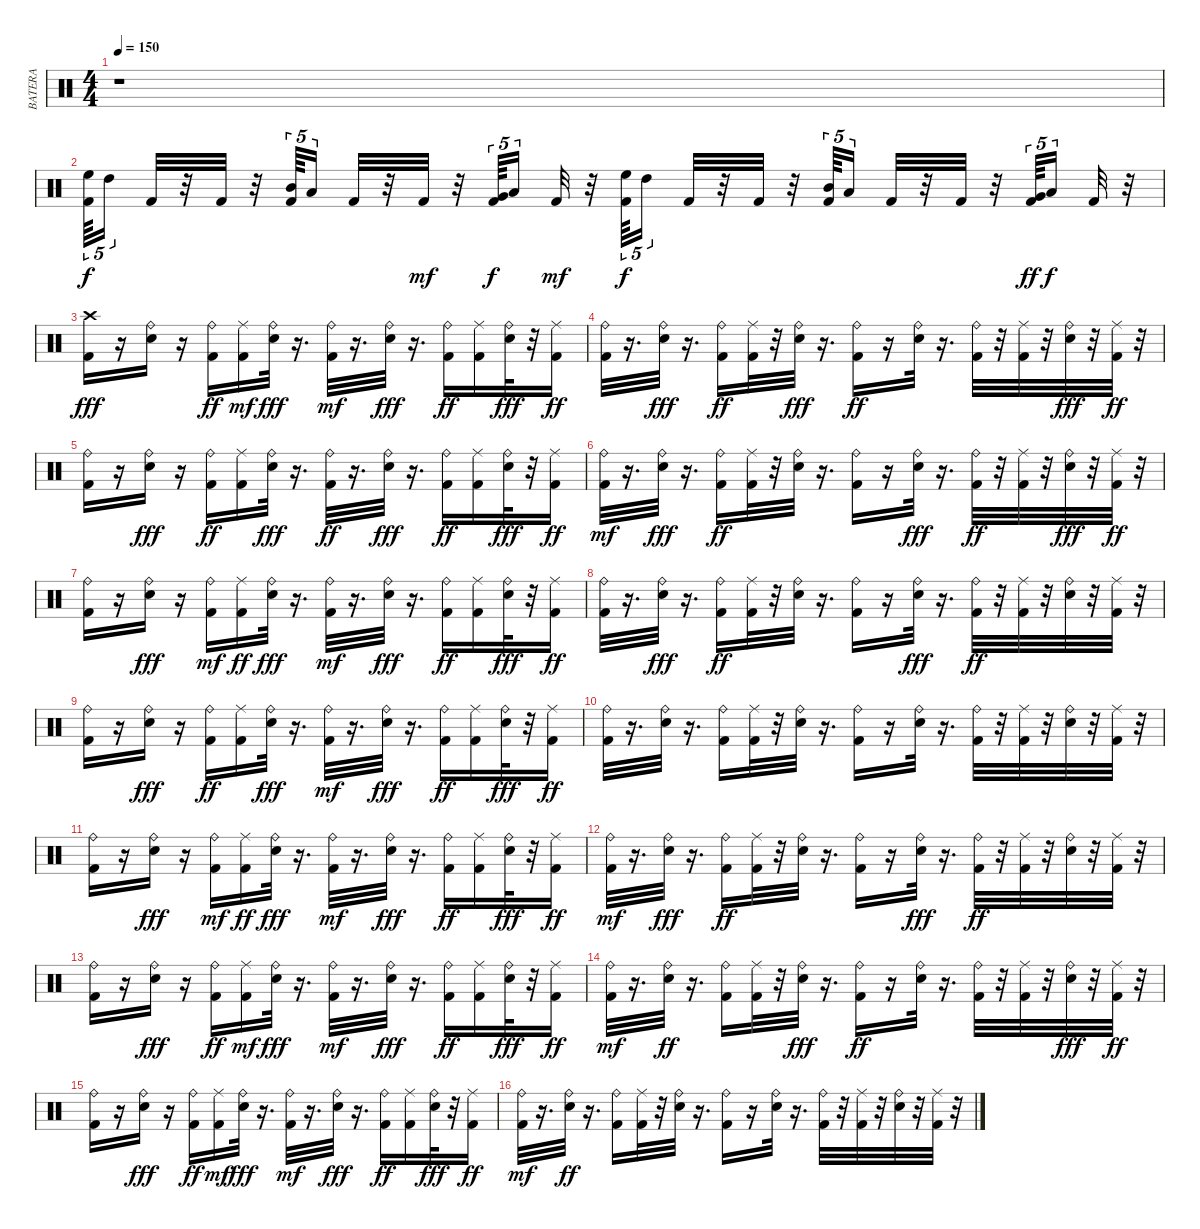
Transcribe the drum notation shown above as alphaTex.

\track ("BATERA" "BATERA") {instrument percussion}
\staff {score}
\articulation defaults
\ts (4 4)
\tempo 150
\clef neutral
\ks c
r.1{dy f} |
("Kick (hit) 2" "High Floor Tom (hit)").64{tu (5 4)} "High Tom (hit)".16{tu (5 4)} "Kick (hit) 2".32 r.32 "Kick (hit) 2".32 r.32 ("Kick (hit) 2" "Mid Tom (hit)").64{tu (5 4)} "Low Tom (hit)".16{tu (5 4)} "Kick (hit) 2".32 r.32 "Kick (hit) 2".32{dy mf} r.32 ("Kick (hit) 2" "Very Low Tom (hit)").64{tu (5 4) dy f} "Low Floor Tom (hit)".16{tu (5 4)} "Kick (hit) 2".32{dy mf} r.32 ("Kick (hit) 2" "High Floor Tom (hit)").64{tu (5 4) dy f} "High Tom (hit)".16{tu (5 4)} "Kick (hit) 2".32 r.32 "Kick (hit) 2".32 r.32 ("Mid Tom (hit)" "Kick (hit) 2").64{tu (5 4)} "Low Tom (hit)".16{tu (5 4)} "Kick (hit) 2".32 r.32 "Kick (hit) 2".32 r.32 ("Kick (hit) 2" "Very Low Tom (hit)").64{tu (5 4) dy ff} "Low Floor Tom (hit)".16{tu (5 4) dy f} "Kick (hit) 2".32 r.32 |
("Kick (hit) 2" "Crash high (hit)").16{dy fff} r.16 ("Electric Snare (hit)" "Ride (bell)").16 r.16 ("Ride (bell)" "Kick (hit) 2").16{dy ff} ("Kick (hit) 2" "Ride (middle)").16{dy mf} ("Ride (bell)" "Electric Snare (hit)").32{dy fff} r.16{d} ("Kick (hit) 2" "Ride (bell)").32{dy mf} r.16{d} ("Electric Snare (hit)" "Ride (bell)").32{dy fff} r.16{d} ("Kick (hit) 2" "Ride (bell)").16{dy ff} ("Kick (hit) 2" "Ride (middle)").16 ("Electric Snare (hit)" "Ride (bell)").32{dy fff} r.32 ("Ride (middle)" "Kick (hit) 2").16{dy ff} |
("Ride (bell)" "Kick (hit) 2").32 r.16{d} ("Ride (bell)" "Electric Snare (hit)").32{dy fff} r.16{d} ("Ride (bell)" "Kick (hit) 2").16{dy ff} ("Kick (hit) 2" "Ride (middle)").32 r.32 ("Ride (bell)" "Electric Snare (hit)").32{dy fff} r.16{d} ("Kick (hit) 2" "Ride (bell)").16{dy ff} r.16 ("Electric Snare (hit)" "Ride (bell)").32 r.16{d} ("Ride (bell)" "Kick (hit) 2").32 r.32 ("Kick (hit) 2" "Ride (middle)").32 r.32 ("Ride (bell)" "Electric Snare (hit)").32{dy fff} r.32 ("Ride (middle)" "Kick (hit) 2").32{dy ff} r.32 |
("Ride (bell)" "Kick (hit) 2").16 r.16 ("Electric Snare (hit)" "Ride (bell)").16{dy fff} r.16 ("Ride (bell)" "Kick (hit) 2").16{dy ff} ("Ride (middle)" "Kick (hit) 2").16 ("Electric Snare (hit)" "Ride (bell)").32{dy fff} r.16{d} ("Ride (bell)" "Kick (hit) 2").32{dy ff} r.16{d} ("Ride (bell)" "Electric Snare (hit)").32{dy fff} r.16{d} ("Ride (bell)" "Kick (hit) 2").16{dy ff} ("Kick (hit) 2" "Ride (middle)").16 ("Ride (bell)" "Electric Snare (hit)").32{dy fff} r.32 ("Ride (middle)" "Kick (hit) 2").16{dy ff} |
("Kick (hit) 2" "Ride (bell)").32{dy mf} r.16{d} ("Ride (bell)" "Electric Snare (hit)").32{dy fff} r.16{d} ("Ride (bell)" "Kick (hit) 2").16{dy ff} ("Kick (hit) 2" "Ride (middle)").32 r.32 ("Electric Snare (hit)" "Ride (bell)").32 r.16{d} ("Kick (hit) 2" "Ride (bell)").16 r.16 ("Ride (bell)" "Electric Snare (hit)").32{dy fff} r.16{d} ("Kick (hit) 2" "Ride (bell)").32{dy ff} r.32 ("Kick (hit) 2" "Ride (middle)").32 r.32 ("Ride (bell)" "Electric Snare (hit)").32{dy fff} r.32 ("Kick (hit) 2" "Ride (middle)").32{dy ff} r.32 |
("Ride (bell)" "Kick (hit) 2").16 r.16 ("Electric Snare (hit)" "Ride (bell)").16{dy fff} r.16 ("Kick (hit) 2" "Ride (bell)").16{dy mf} ("Ride (middle)" "Kick (hit) 2").16{dy ff} ("Electric Snare (hit)" "Ride (bell)").32{dy fff} r.16{d} ("Kick (hit) 2" "Ride (bell)").32{dy mf} r.16{d} ("Ride (bell)" "Electric Snare (hit)").32{dy fff} r.16{d} ("Kick (hit) 2" "Ride (bell)").16{dy ff} ("Ride (middle)" "Kick (hit) 2").16 ("Electric Snare (hit)" "Ride (bell)").32{dy fff} r.32 ("Kick (hit) 2" "Ride (middle)").16{dy ff} |
("Ride (bell)" "Kick (hit) 2").32 r.16{d} ("Ride (bell)" "Electric Snare (hit)").32{dy fff} r.16{d} ("Kick (hit) 2" "Ride (bell)").16{dy ff} ("Kick (hit) 2" "Ride (middle)").32 r.32 ("Electric Snare (hit)" "Ride (bell)").32 r.16{d} ("Ride (bell)" "Kick (hit) 2").16 r.16 ("Ride (bell)" "Electric Snare (hit)").32{dy fff} r.16{d} ("Ride (bell)" "Kick (hit) 2").32{dy ff} r.32 ("Ride (middle)" "Kick (hit) 2").32 r.32 ("Electric Snare (hit)" "Ride (bell)").32 r.32 ("Ride (middle)" "Kick (hit) 2").32 r.32 |
("Ride (bell)" "Kick (hit) 2").16 r.16 ("Electric Snare (hit)" "Ride (bell)").16{dy fff} r.16 ("Ride (bell)" "Kick (hit) 2").16{dy ff} ("Ride (middle)" "Kick (hit) 2").16 ("Electric Snare (hit)" "Ride (bell)").32{dy fff} r.16{d} ("Kick (hit) 2" "Ride (bell)").32{dy mf} r.16{d} ("Electric Snare (hit)" "Ride (bell)").32{dy fff} r.16{d} ("Ride (bell)" "Kick (hit) 2").16{dy ff} ("Kick (hit) 2" "Ride (middle)").16 ("Electric Snare (hit)" "Ride (bell)").32{dy fff} r.32 ("Kick (hit) 2" "Ride (middle)").16{dy ff} |
("Ride (bell)" "Kick (hit) 2").32 r.16{d} ("Electric Snare (hit)" "Ride (bell)").32 r.16{d} ("Kick (hit) 2" "Ride (bell)").16 ("Ride (middle)" "Kick (hit) 2").32 r.32 ("Electric Snare (hit)" "Ride (bell)").32 r.16{d} ("Ride (bell)" "Kick (hit) 2").16 r.16 ("Electric Snare (hit)" "Ride (bell)").32 r.16{d} ("Ride (bell)" "Kick (hit) 2").32 r.32 ("Kick (hit) 2" "Ride (middle)").32 r.32 ("Electric Snare (hit)" "Ride (bell)").32 r.32 ("Ride (middle)" "Kick (hit) 2").32 r.32 |
("Kick (hit) 2" "Ride (bell)").16 r.16 ("Ride (bell)" "Electric Snare (hit)").16{dy fff} r.16 ("Kick (hit) 2" "Ride (bell)").16{dy mf} ("Ride (middle)" "Kick (hit) 2").16{dy ff} ("Ride (bell)" "Electric Snare (hit)").32{dy fff} r.16{d} ("Kick (hit) 2" "Ride (bell)").32{dy mf} r.16{d} ("Ride (bell)" "Electric Snare (hit)").32{dy fff} r.16{d} ("Kick (hit) 2" "Ride (bell)").16{dy ff} ("Ride (middle)" "Kick (hit) 2").16 ("Electric Snare (hit)" "Ride (bell)").32{dy fff} r.32 ("Ride (middle)" "Kick (hit) 2").16{dy ff} |
("Kick (hit) 2" "Ride (bell)").32{dy mf} r.16{d} ("Ride (bell)" "Electric Snare (hit)").32{dy fff} r.16{d} ("Kick (hit) 2" "Ride (bell)").16{dy ff} ("Ride (middle)" "Kick (hit) 2").32 r.32 ("Electric Snare (hit)" "Ride (bell)").32 r.16{d} ("Ride (bell)" "Kick (hit) 2").16 r.16 ("Ride (bell)" "Electric Snare (hit)").32{dy fff} r.16{d} ("Kick (hit) 2" "Ride (bell)").32{dy ff} r.32 ("Ride (middle)" "Kick (hit) 2").32 r.32 ("Electric Snare (hit)" "Ride (bell)").32 r.32 ("Ride (middle)" "Kick (hit) 2").32 r.32 |
("Ride (bell)" "Kick (hit) 2").16 r.16 ("Ride (bell)" "Electric Snare (hit)").16{dy fff} r.16 ("Ride (bell)" "Kick (hit) 2").16{dy ff} ("Kick (hit) 2" "Ride (middle)").16{dy mf} ("Ride (bell)" "Electric Snare (hit)").32{dy fff} r.16{d} ("Kick (hit) 2" "Ride (bell)").32{dy mf} r.16{d} ("Ride (bell)" "Electric Snare (hit)").32{dy fff} r.16{d} ("Kick (hit) 2" "Ride (bell)").16{dy ff} ("Ride (middle)" "Kick (hit) 2").16 ("Ride (bell)" "Electric Snare (hit)").32{dy fff} r.32 ("Kick (hit) 2" "Ride (middle)").16{dy ff} |
("Kick (hit) 2" "Ride (bell)").32{dy mf} r.16{d} ("Electric Snare (hit)" "Ride (bell)").32{dy ff} r.16{d} ("Ride (bell)" "Kick (hit) 2").16 ("Kick (hit) 2" "Ride (middle)").32 r.32 ("Ride (bell)" "Electric Snare (hit)").32{dy fff} r.16{d} ("Kick (hit) 2" "Ride (bell)").16{dy ff} r.16 ("Electric Snare (hit)" "Ride (bell)").32 r.16{d} ("Ride (bell)" "Kick (hit) 2").32 r.32 ("Kick (hit) 2" "Ride (middle)").32 r.32 ("Ride (bell)" "Electric Snare (hit)").32{dy fff} r.32 ("Kick (hit) 2" "Ride (middle)").32{dy ff} r.32 |
("Ride (bell)" "Kick (hit) 2").16 r.16 ("Electric Snare (hit)" "Ride (bell)").16{dy fff} r.16 ("Ride (bell)" "Kick (hit) 2").16{dy ff} ("Kick (hit) 2" "Ride (middle)").16{dy mf} ("Electric Snare (hit)" "Ride (bell)").32{dy fff} r.16{d} ("Kick (hit) 2" "Ride (bell)").32{dy mf} r.16{d} ("Electric Snare (hit)" "Ride (bell)").32{dy fff} r.16{d} ("Ride (bell)" "Kick (hit) 2").16{dy ff} ("Kick (hit) 2" "Ride (middle)").16 ("Ride (bell)" "Electric Snare (hit)").32{dy fff} r.32 ("Ride (middle)" "Kick (hit) 2").16{dy ff} |
("Kick (hit) 2" "Ride (bell)").32{dy mf} r.16{d} ("Electric Snare (hit)" "Ride (bell)").32{dy ff} r.16{d} ("Ride (bell)" "Kick (hit) 2").16 ("Ride (middle)" "Kick (hit) 2").32 r.32 ("Electric Snare (hit)" "Ride (bell)").32 r.16{d} ("Kick (hit) 2" "Ride (bell)").16 r.16 ("Electric Snare (hit)" "Ride (bell)").32 r.16{d} ("Kick (hit) 2" "Ride (bell)").32 r.32 ("Kick (hit) 2" "Ride (middle)").32 r.32 ("Electric Snare (hit)" "Ride (bell)").32 r.32 ("Ride (middle)" "Kick (hit) 2").32 r.32
